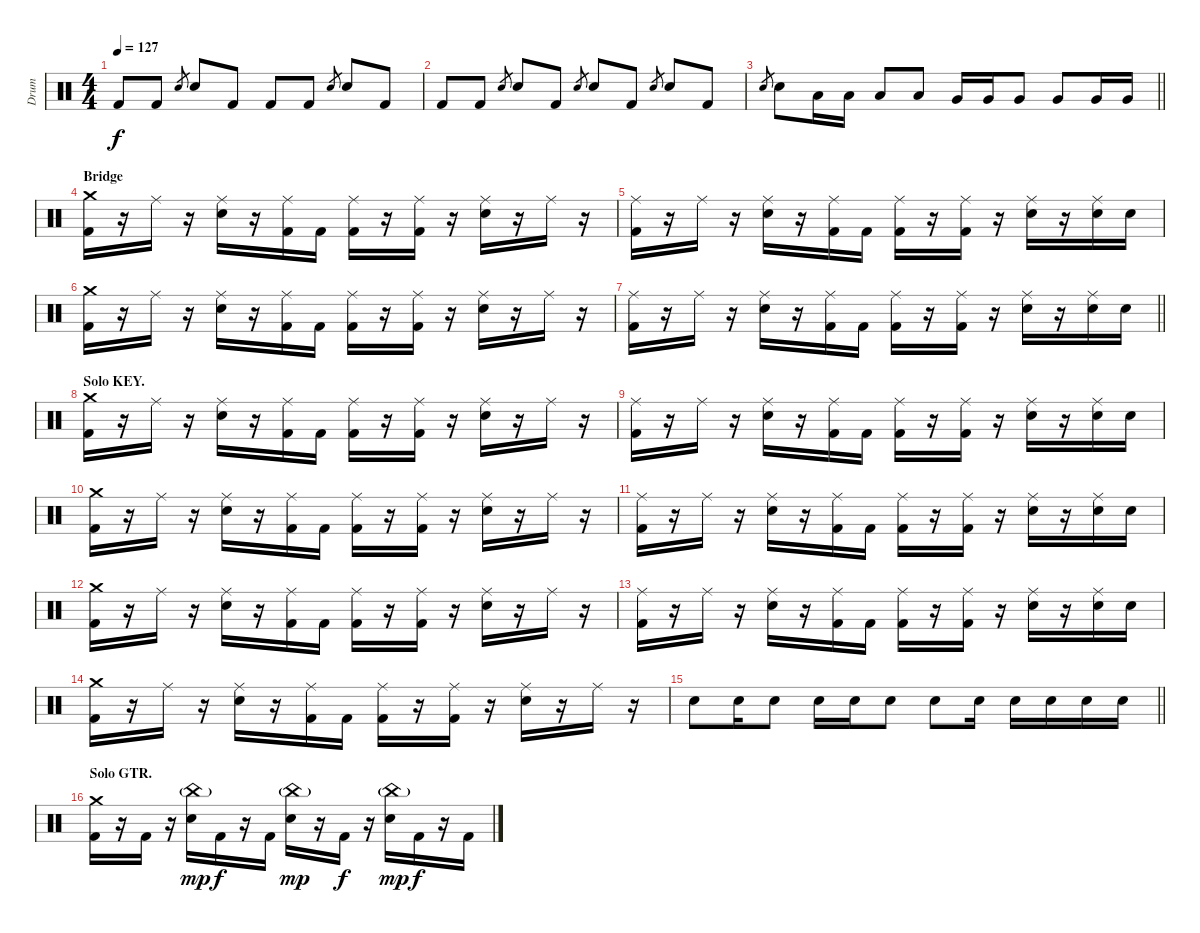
\track ("Drum" "Drum") {instrument percussion}
\staff {score}
\articulation defaults
\ts (4 4)
\tempo 127
\clef neutral
\ks c "Kick (hit) 2".8{dy f} "Kick (hit) 2".8 "Electric Snare (hit)".8{gr} "Electric Snare (hit)".8 "Kick (hit) 2".8 "Kick (hit) 2".8 "Kick (hit) 2".8 "Electric Snare (hit)".8{gr} "Electric Snare (hit)".8 "Kick (hit) 2".8
|
"Kick (hit) 2".8 "Kick (hit) 2".8 "Electric Snare (hit)".8{gr} "Electric Snare (hit)".8 "Kick (hit) 2".8 "Electric Snare (hit)".8{gr} "Electric Snare (hit)".8 "Kick (hit) 2".8 "Electric Snare (hit)".8{gr} "Electric Snare (hit)".8 "Kick (hit) 2".8 |
\barLineRight lightlight "Electric Snare (hit)".8{gr} "Electric Snare (hit)".8 "Low Tom (hit)".16 "Low Tom (hit)".16 "Low Tom (hit)".8 "Low Tom (hit)".8 "Very Low Tom (hit)".16 "Very Low Tom (hit)".16 "Very Low Tom (hit)".8 "Very Low Tom (hit)".8 "Very Low Tom (hit)".16 "Very Low Tom (hit)".16
|
\section ("" "Bridge")
("Crash medium (hit)" "Kick (hit) 2").16 r.16 "Ride (middle)".16 r.16 ("Ride (middle)" "Electric Snare (hit)").16 r.16 ("Ride (middle)" "Kick (hit) 2").16 "Kick (hit) 2".16 ("Ride (middle)" "Kick (hit) 2").16 r.16 ("Ride (middle)" "Kick (hit) 2").16 r.16 ("Ride (middle)" "Electric Snare (hit)").16 r.16 "Ride (middle)".16 r.16 |
("Ride (middle)" "Kick (hit) 2").16 r.16 "Ride (middle)".16 r.16 ("Ride (middle)" "Electric Snare (hit)").16 r.16 ("Ride (middle)" "Kick (hit) 2").16 "Kick (hit) 2".16 ("Ride (middle)" "Kick (hit) 2").16 r.16 ("Ride (middle)" "Kick (hit) 2").16 r.16 ("Ride (middle)" "Electric Snare (hit)").16 r.16 ("Ride (middle)" "Electric Snare (hit)").16 "Electric Snare (hit)".16 |
("Crash medium (hit)" "Kick (hit) 2").16 r.16 "Ride (middle)".16 r.16 ("Ride (middle)" "Electric Snare (hit)").16 r.16 ("Ride (middle)" "Kick (hit) 2").16 "Kick (hit) 2".16 ("Ride (middle)" "Kick (hit) 2").16 r.16 ("Ride (middle)" "Kick (hit) 2").16 r.16 ("Ride (middle)" "Electric Snare (hit)").16 r.16 "Ride (middle)".16 r.16 |
\barLineRight lightlight
("Ride (middle)" "Kick (hit) 2").16 r.16 "Ride (middle)".16 r.16 ("Ride (middle)" "Electric Snare (hit)").16 r.16 ("Ride (middle)" "Kick (hit) 2").16 "Kick (hit) 2".16 ("Ride (middle)" "Kick (hit) 2").16 r.16 ("Ride (middle)" "Kick (hit) 2").16 r.16 ("Ride (middle)" "Electric Snare (hit)").16 r.16 ("Ride (middle)" "Electric Snare (hit)").16 "Electric Snare (hit)".16 |
\section ("" "Solo KEY.")
("Crash medium (hit)" "Kick (hit) 2").16 r.16 "Ride (middle)".16 r.16 ("Ride (middle)" "Electric Snare (hit)").16 r.16 ("Ride (middle)" "Kick (hit) 2").16 "Kick (hit) 2".16 ("Ride (middle)" "Kick (hit) 2").16 r.16 ("Ride (middle)" "Kick (hit) 2").16 r.16 ("Ride (middle)" "Electric Snare (hit)").16 r.16 "Ride (middle)".16 r.16 |
("Ride (middle)" "Kick (hit) 2").16 r.16 "Ride (middle)".16 r.16 ("Ride (middle)" "Electric Snare (hit)").16 r.16 ("Ride (middle)" "Kick (hit) 2").16 "Kick (hit) 2".16 ("Ride (middle)" "Kick (hit) 2").16 r.16 ("Ride (middle)" "Kick (hit) 2").16 r.16 ("Ride (middle)" "Electric Snare (hit)").16 r.16 ("Ride (middle)" "Electric Snare (hit)").16 "Electric Snare (hit)".16 |
("Crash medium (hit)" "Kick (hit) 2").16 r.16 "Ride (middle)".16 r.16 ("Ride (middle)" "Electric Snare (hit)").16 r.16 ("Ride (middle)" "Kick (hit) 2").16 "Kick (hit) 2".16 ("Ride (middle)" "Kick (hit) 2").16 r.16 ("Ride (middle)" "Kick (hit) 2").16 r.16 ("Ride (middle)" "Electric Snare (hit)").16 r.16 "Ride (middle)".16 r.16 |
("Ride (middle)" "Kick (hit) 2").16 r.16 "Ride (middle)".16 r.16 ("Ride (middle)" "Electric Snare (hit)").16 r.16 ("Ride (middle)" "Kick (hit) 2").16 "Kick (hit) 2".16 ("Ride (middle)" "Kick (hit) 2").16 r.16 ("Ride (middle)" "Kick (hit) 2").16 r.16 ("Ride (middle)" "Electric Snare (hit)").16 r.16 ("Ride (middle)" "Electric Snare (hit)").16 "Electric Snare (hit)".16 |
("Crash medium (hit)" "Kick (hit) 2").16 r.16 "Ride (middle)".16 r.16 ("Ride (middle)" "Electric Snare (hit)").16 r.16 ("Ride (middle)" "Kick (hit) 2").16 "Kick (hit) 2".16 ("Ride (middle)" "Kick (hit) 2").16 r.16 ("Ride (middle)" "Kick (hit) 2").16 r.16 ("Ride (middle)" "Electric Snare (hit)").16 r.16 "Ride (middle)".16 r.16 |
("Ride (middle)" "Kick (hit) 2").16 r.16 "Ride (middle)".16 r.16 ("Ride (middle)" "Electric Snare (hit)").16 r.16 ("Ride (middle)" "Kick (hit) 2").16 "Kick (hit) 2".16 ("Ride (middle)" "Kick (hit) 2").16 r.16 ("Ride (middle)" "Kick (hit) 2").16 r.16 ("Ride (middle)" "Electric Snare (hit)").16 r.16 ("Ride (middle)" "Electric Snare (hit)").16 "Electric Snare (hit)".16 |
("Crash medium (hit)" "Kick (hit) 2").16 r.16 "Ride (middle)".16 r.16 ("Ride (middle)" "Electric Snare (hit)").16 r.16 ("Ride (middle)" "Kick (hit) 2").16 "Kick (hit) 2".16 ("Ride (middle)" "Kick (hit) 2").16 r.16 ("Ride (middle)" "Kick (hit) 2").16 r.16 ("Ride (middle)" "Electric Snare (hit)").16 r.16 "Ride (middle)".16 r.16 |
\barLineRight lightlight "Electric Snare (hit)".8 "Electric Snare (hit)".16 "Electric Snare (hit)".8 "Electric Snare (hit)".16 "Electric Snare (hit)".16 "Electric Snare (hit)".8 "Electric Snare (hit)".8 "Electric Snare (hit)".16 "Electric Snare (hit)".16 "Electric Snare (hit)".16 "Electric Snare (hit)".16 "Electric Snare (hit)".16
|
\section ("" "Solo GTR.")
("Crash medium (hit)" "Kick (hit) 2").16 r.16 "Kick (hit) 2".16 r.16 ("China (hit)"{g} "Electric Snare (hit)").16{dy mp} "Kick (hit) 2".16{dy f} r.16 "Kick (hit) 2".16 ("China (hit)"{g} "Electric Snare (hit)").16{dy mp} r.16 "Kick (hit) 2".16{dy f} r.16 ("China (hit)"{g} "Electric Snare (hit)").16{dy mp} "Kick (hit) 2".16{dy f} r.16 "Kick (hit) 2".16
